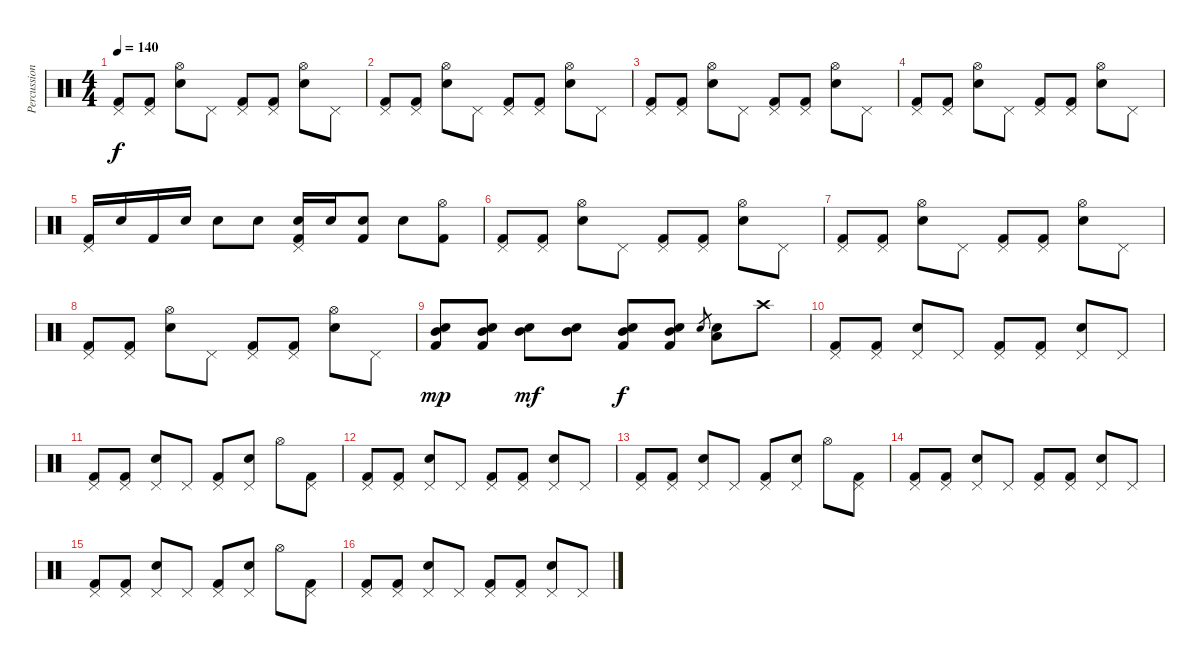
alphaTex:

\track ("Percussions" "Percussion") {instrument percussion}
\staff {score}
\articulation defaults
\ts (4 4)
\tempo 140
\clef neutral
\ks c
("Pedal Hi-Hat (hit)" "Kick (hit) 2").8{dy f} ("Pedal Hi-Hat (hit)" "Kick (hit) 2").8 ("Hi-Hat (open)" "Snare (hit) 2").8 "Pedal Hi-Hat (hit)".8 ("Pedal Hi-Hat (hit)" "Kick (hit) 2").8 ("Pedal Hi-Hat (hit)" "Kick (hit) 2").8 ("Hi-Hat (open)" "Snare (hit) 2").8 "Pedal Hi-Hat (hit)".8 |
("Pedal Hi-Hat (hit)" "Kick (hit) 2").8 ("Pedal Hi-Hat (hit)" "Kick (hit) 2").8 ("Hi-Hat (open)" "Snare (hit) 2").8 "Pedal Hi-Hat (hit)".8 ("Pedal Hi-Hat (hit)" "Kick (hit) 2").8 ("Pedal Hi-Hat (hit)" "Kick (hit) 2").8 ("Hi-Hat (open)" "Snare (hit) 2").8 "Pedal Hi-Hat (hit)".8 |
("Pedal Hi-Hat (hit)" "Kick (hit) 2").8 ("Pedal Hi-Hat (hit)" "Kick (hit) 2").8 ("Hi-Hat (open)" "Snare (hit) 2").8 "Pedal Hi-Hat (hit)".8 ("Pedal Hi-Hat (hit)" "Kick (hit) 2").8 ("Pedal Hi-Hat (hit)" "Kick (hit) 2").8 ("Hi-Hat (open)" "Snare (hit) 2").8 "Pedal Hi-Hat (hit)".8 |
("Pedal Hi-Hat (hit)" "Kick (hit) 2").8 ("Pedal Hi-Hat (hit)" "Kick (hit) 2").8 ("Hi-Hat (open)" "Snare (hit) 2").8 "Pedal Hi-Hat (hit)".8 ("Pedal Hi-Hat (hit)" "Kick (hit) 2").8 ("Pedal Hi-Hat (hit)" "Kick (hit) 2").8 ("Hi-Hat (open)" "Snare (hit) 2").8 "Pedal Hi-Hat (hit)".8 |
("Pedal Hi-Hat (hit)" "Kick (hit) 2").16 "Snare (hit) 2".16 "Kick (hit) 2".16 "Snare (hit) 2".16 "Snare (hit) 2".8 "Snare (hit) 2".8 ("Pedal Hi-Hat (hit)" "Snare (hit) 2" "Kick (hit) 2").16 "Snare (hit) 2".16 ("Snare (hit) 2" "Kick (hit) 2").8 "Snare (hit) 2".8 ("Hi-Hat (open)" "Kick (hit) 2").8 |
("Pedal Hi-Hat (hit)" "Kick (hit) 2").8 ("Pedal Hi-Hat (hit)" "Kick (hit) 2").8 ("Hi-Hat (open)" "Snare (hit) 2").8 "Pedal Hi-Hat (hit)".8 ("Pedal Hi-Hat (hit)" "Kick (hit) 2").8 ("Pedal Hi-Hat (hit)" "Kick (hit) 2").8 ("Hi-Hat (open)" "Snare (hit) 2").8 "Pedal Hi-Hat (hit)".8 |
("Pedal Hi-Hat (hit)" "Kick (hit) 2").8 ("Pedal Hi-Hat (hit)" "Kick (hit) 2").8 ("Hi-Hat (open)" "Snare (hit) 2").8 "Pedal Hi-Hat (hit)".8 ("Pedal Hi-Hat (hit)" "Kick (hit) 2").8 ("Pedal Hi-Hat (hit)" "Kick (hit) 2").8 ("Hi-Hat (open)" "Snare (hit) 2").8 "Pedal Hi-Hat (hit)".8 |
("Pedal Hi-Hat (hit)" "Kick (hit) 2").8 ("Pedal Hi-Hat (hit)" "Kick (hit) 2").8 ("Hi-Hat (open)" "Snare (hit) 2").8 "Pedal Hi-Hat (hit)".8 ("Pedal Hi-Hat (hit)" "Kick (hit) 2").8 ("Pedal Hi-Hat (hit)" "Kick (hit) 2").8 ("Hi-Hat (open)" "Snare (hit) 2").8 "Pedal Hi-Hat (hit)".8 |
("Mid Tom (hit)" "Snare (hit) 2" "Kick (hit) 2").8{dy mp} ("Mid Tom (hit)" "Snare (hit) 2" "Kick (hit) 2").8 ("Mid Tom (hit)" "Snare (hit) 2").8{dy mf} ("Mid Tom (hit)" "Snare (hit) 2").8 ("Mid Tom (hit)" "Snare (hit) 2" "Kick (hit) 2").8{dy f} ("Mid Tom (hit)" "Snare (hit) 2" "Kick (hit) 2").8 "Snare (hit) 2".8{gr} ("Low Tom (hit)" "Electric Snare (hit)").8 "Crash high (hit)".8 |
("Pedal Hi-Hat (hit)" "Kick (hit) 2").8 ("Pedal Hi-Hat (hit)" "Kick (hit) 2").8 ("Pedal Hi-Hat (hit)" "Snare (hit) 2").8 "Pedal Hi-Hat (hit)".8 ("Pedal Hi-Hat (hit)" "Kick (hit) 2").8 ("Pedal Hi-Hat (hit)" "Kick (hit) 2").8 ("Pedal Hi-Hat (hit)" "Snare (hit) 2").8 "Pedal Hi-Hat (hit)".8 |
("Pedal Hi-Hat (hit)" "Kick (hit) 2").8 ("Pedal Hi-Hat (hit)" "Kick (hit) 2").8 ("Pedal Hi-Hat (hit)" "Snare (hit) 2").8 "Pedal Hi-Hat (hit)".8 ("Pedal Hi-Hat (hit)" "Kick (hit) 2").8 ("Pedal Hi-Hat (hit)" "Snare (hit) 2").8 "Hi-Hat (open)".8 ("Pedal Hi-Hat (hit)" "Kick (hit) 2").8 |
("Pedal Hi-Hat (hit)" "Kick (hit) 2").8 ("Pedal Hi-Hat (hit)" "Kick (hit) 2").8 ("Pedal Hi-Hat (hit)" "Snare (hit) 2").8 "Pedal Hi-Hat (hit)".8 ("Pedal Hi-Hat (hit)" "Kick (hit) 2").8 ("Pedal Hi-Hat (hit)" "Kick (hit) 2").8 ("Pedal Hi-Hat (hit)" "Snare (hit) 2").8 "Pedal Hi-Hat (hit)".8 |
("Pedal Hi-Hat (hit)" "Kick (hit) 2").8 ("Pedal Hi-Hat (hit)" "Kick (hit) 2").8 ("Pedal Hi-Hat (hit)" "Snare (hit) 2").8 "Pedal Hi-Hat (hit)".8 ("Pedal Hi-Hat (hit)" "Kick (hit) 2").8 ("Pedal Hi-Hat (hit)" "Snare (hit) 2").8 "Hi-Hat (open)".8 ("Pedal Hi-Hat (hit)" "Kick (hit) 2").8 |
("Pedal Hi-Hat (hit)" "Kick (hit) 2").8 ("Pedal Hi-Hat (hit)" "Kick (hit) 2").8 ("Pedal Hi-Hat (hit)" "Snare (hit) 2").8 "Pedal Hi-Hat (hit)".8 ("Pedal Hi-Hat (hit)" "Kick (hit) 2").8 ("Pedal Hi-Hat (hit)" "Kick (hit) 2").8 ("Pedal Hi-Hat (hit)" "Snare (hit) 2").8 "Pedal Hi-Hat (hit)".8 |
("Pedal Hi-Hat (hit)" "Kick (hit) 2").8 ("Pedal Hi-Hat (hit)" "Kick (hit) 2").8 ("Pedal Hi-Hat (hit)" "Snare (hit) 2").8 "Pedal Hi-Hat (hit)".8 ("Pedal Hi-Hat (hit)" "Kick (hit) 2").8 ("Pedal Hi-Hat (hit)" "Snare (hit) 2").8 "Hi-Hat (open)".8 ("Pedal Hi-Hat (hit)" "Kick (hit) 2").8 |
("Pedal Hi-Hat (hit)" "Kick (hit) 2").8 ("Pedal Hi-Hat (hit)" "Kick (hit) 2").8 ("Pedal Hi-Hat (hit)" "Snare (hit) 2").8 "Pedal Hi-Hat (hit)".8 ("Pedal Hi-Hat (hit)" "Kick (hit) 2").8 ("Pedal Hi-Hat (hit)" "Kick (hit) 2").8 ("Pedal Hi-Hat (hit)" "Snare (hit) 2").8 "Pedal Hi-Hat (hit)".8
